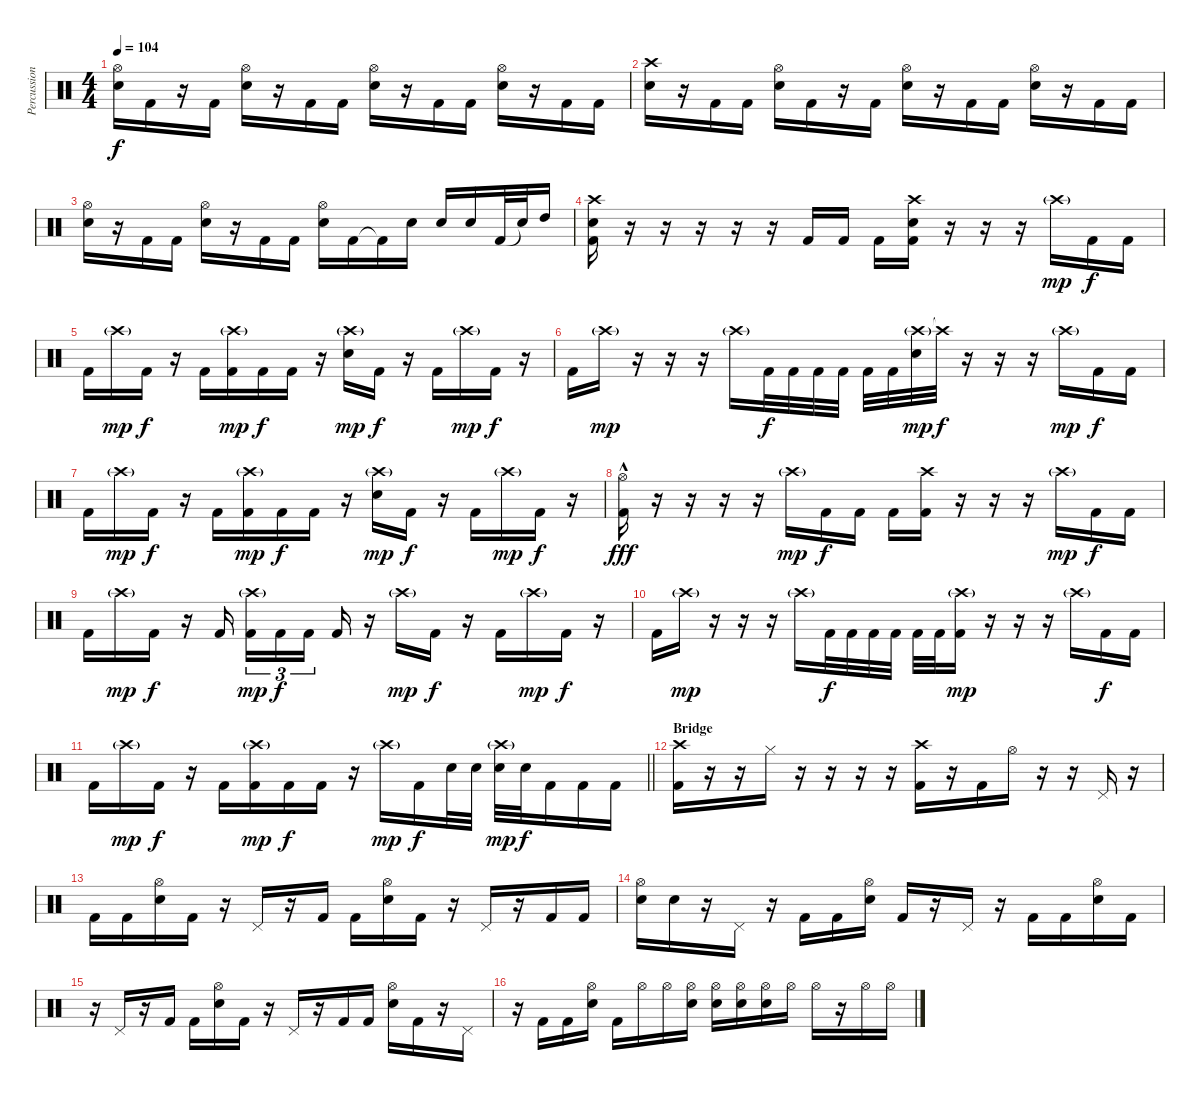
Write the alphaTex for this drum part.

\track ("Percussion" "Percussion") {instrument percussion}
\staff {score}
\articulation defaults
\ts (4 4)
\tempo 104
\clef neutral
\ks c
("Hi-Hat (open)" "Snare (hit) 2").16{dy f} "Kick (hit) 2".16 r.16 "Kick (hit) 2".16 ("Hi-Hat (open)" "Snare (hit) 2").16 r.16 "Kick (hit) 2".16 "Kick (hit) 2".16 ("Hi-Hat (open)" "Snare (hit) 2").16 r.16 "Kick (hit) 2".16 "Kick (hit) 2".16 ("Hi-Hat (open)" "Snare (hit) 2").16 r.16 "Kick (hit) 2".16 "Kick (hit) 2".16 |
("Crash high (hit)" "Snare (hit) 2").16 r.16 "Kick (hit) 2".16 "Kick (hit) 2".16 ("Hi-Hat (open)" "Snare (hit) 2").16 "Kick (hit) 2".16 r.16 "Kick (hit) 2".16 ("Hi-Hat (open)" "Snare (hit) 2").16 r.16 "Kick (hit) 2".16 "Kick (hit) 2".16 ("Hi-Hat (open)" "Snare (hit) 2").16 r.16 "Kick (hit) 2".16 "Kick (hit) 2".16 |
("Hi-Hat (open)" "Snare (hit) 2").16 r.16 "Kick (hit) 2".16 "Kick (hit) 2".16 ("Hi-Hat (open)" "Snare (hit) 2").16 r.16 "Kick (hit) 2".16 "Kick (hit) 2".16 ("Hi-Hat (open)" "Snare (hit) 2").16 "Kick (hit) 2".16 "Kick (hit) 2"{t}.16 "Snare (hit) 2".16 "Snare (hit) 2".16 "Snare (hit) 2".16 "Kick (hit) 2".32 "Snare (hit)"{t}.32 "High Tom (hit)".16 |
("Crash high (hit)" "Snare (hit) 2" "Kick (hit) 2").16 r.16 r.16 r.16 r.16 r.16 "Kick (hit) 2".16 "Kick (hit) 2".16 "Kick (hit) 2".16 ("Crash high (hit)" "Snare (hit) 2" "Kick (hit) 2").16 r.16 r.16 r.16 "Crash high (hit)"{g}.16{dy mp} "Kick (hit) 2".16{dy f} "Kick (hit) 2".16 |
"Kick (hit) 2".16 "Crash high (hit)"{g}.16{dy mp} "Kick (hit) 2".16{dy f} r.16 "Kick (hit) 2".16 ("Crash high (hit)"{g} "Kick (hit) 2").16{dy mp} "Kick (hit) 2".16{dy f} "Kick (hit) 2".16 r.16 ("Crash high (hit)"{g} "Snare (hit) 2").16{dy mp} "Kick (hit) 2".16{dy f} r.16 "Kick (hit) 2".16 "Crash high (hit)"{g}.16{dy mp} "Kick (hit) 2".16{dy f} r.16 |
"Kick (hit) 2".16 "Crash high (hit)"{g}.16{dy mp} r.16 r.16 r.16 "Crash high (hit)"{g}.16 "Kick (hit) 2".32{dy f} "Kick (hit) 2".32 "Kick (hit) 2".32 "Kick (hit) 2".32 "Kick (hit) 2".32 "Kick (hit) 2".32 ("Crash high (hit)"{g} "Snare (hit) 2").32{dy mp} "Crash high (hit)"{t}.32{dy f} r.16 r.16 r.16 "Crash high (hit)"{g}.16{dy mp} "Kick (hit) 2".16{dy f} "Kick (hit) 2".16 |
"Kick (hit) 2".16 "Crash high (hit)"{g}.16{dy mp} "Kick (hit) 2".16{dy f} r.16 "Kick (hit) 2".16 ("Crash high (hit)"{g} "Kick (hit) 2").16{dy mp} "Kick (hit) 2".16{dy f} "Kick (hit) 2".16 r.16 ("Crash high (hit)"{g} "Snare (hit) 2").16{dy mp} "Kick (hit) 2".16{dy f} r.16 "Kick (hit) 2".16 "Crash high (hit)"{g}.16{dy mp} "Kick (hit) 2".16{dy f} r.16 |
("Hi-Hat (open)"{hac} "Kick (hit) 2").16{dy fff} r.16 r.16 r.16 r.16 "Crash high (hit)"{g}.16{dy mp} "Kick (hit) 2".16{dy f} "Kick (hit) 2".16 "Kick (hit) 2".16 ("Crash high (hit)" "Kick (hit) 2").16 r.16 r.16 r.16 "Crash high (hit)"{g}.16{dy mp} "Kick (hit) 2".16{dy f} "Kick (hit) 2".16 |
"Kick (hit) 2".16 "Crash high (hit)"{g}.16{dy mp} "Kick (hit) 2".16{dy f} r.16 "Kick (hit) 2".16{beam splitsecondary} ("Crash high (hit)"{g} "Kick (hit) 2").16{tu (3 2) dy mp} "Kick (hit) 2".16{tu (3 2) dy f} "Kick (hit) 2".16{tu (3 2) beam splitsecondary} "Kick (hit) 2".16 r.16 "Crash high (hit)"{g}.16{dy mp} "Kick (hit) 2".16{dy f} r.16 "Kick (hit) 2".16 "Crash high (hit)"{g}.16{dy mp} "Kick (hit) 2".16{dy f} r.16 |
"Kick (hit) 2".16 "Crash high (hit)"{g}.16{dy mp} r.16 r.16 r.16 "Crash high (hit)"{g}.16 "Kick (hit) 2".32{dy f} "Kick (hit) 2".32 "Kick (hit) 2".32 "Kick (hit) 2".32 "Kick (hit) 2".32 "Kick (hit) 2".32 ("Crash high (hit)"{g} "Kick (hit) 2").16{dy mp} r.16 r.16 r.16 "Crash high (hit)"{g}.16 "Kick (hit) 2".16{dy f} "Kick (hit) 2".16 |
\barLineRight lightlight "Kick (hit) 2".16 "Crash high (hit)"{g}.16{dy mp} "Kick (hit) 2".16{dy f}
r.16 "Kick (hit) 2".16 ("Crash high (hit)"{g} "Kick (hit) 2").16{dy mp} "Kick (hit) 2".16{dy f} "Kick (hit) 2".16 r.16 "Crash high (hit)"{g}.16{dy mp} "Kick (hit) 2".16{dy f} "Snare (hit) 2".32 "Snare (hit) 2".32 ("Crash high (hit)"{g} "Snare (hit) 2").32{dy mp} "Snare (hit) 2".32{dy f} "Kick (hit) 2".16 "Kick (hit) 2".16 "Kick (hit) 2".16 |
\section ("" "Bridge")
("Crash high (hit)" "Kick (hit) 2").16 r.16 r.16 "Hi-Hat (closed)".16 r.16 r.16 r.16 r.16 ("Crash high (hit)" "Kick (hit) 2").16 r.16 "Kick (hit) 2".16 "Hi-Hat (open)".16 r.16 r.16 "Pedal Hi-Hat (hit)".16 r.16 |
"Kick (hit) 2".16 "Kick (hit) 2".16 ("Hi-Hat (open)" "Snare (hit) 2").16 "Kick (hit) 2".16 r.16 "Pedal Hi-Hat (hit)".16 r.16 "Kick (hit) 2".16 "Kick (hit) 2".16 ("Hi-Hat (open)" "Snare (hit) 2").16 "Kick (hit) 2".16 r.16 "Pedal Hi-Hat (hit)".16 r.16 "Kick (hit) 2".16 "Kick (hit) 2".16 |
("Hi-Hat (open)" "Snare (hit) 2").16 "Snare (hit) 2".16 r.16 "Pedal Hi-Hat (hit)".16 r.16 "Kick (hit) 2".16 "Kick (hit) 2".16 ("Hi-Hat (open)" "Snare (hit) 2").16 "Kick (hit) 2".16 r.16 "Pedal Hi-Hat (hit)".16 r.16 "Kick (hit) 2".16 "Kick (hit) 2".16 ("Hi-Hat (open)" "Snare (hit) 2").16 "Kick (hit) 2".16 |
r.16 "Pedal Hi-Hat (hit)".16 r.16 "Kick (hit) 2".16 "Kick (hit) 2".16 ("Hi-Hat (open)" "Snare (hit) 2").16 "Kick (hit) 2".16 r.16 "Pedal Hi-Hat (hit)".16 r.16 "Kick (hit) 2".16 "Kick (hit) 2".16 ("Hi-Hat (open)" "Snare (hit) 2").16 "Kick (hit) 2".16 r.16 "Pedal Hi-Hat (hit)".16 |
r.16 "Kick (hit) 2".16 "Kick (hit) 2".16 ("Hi-Hat (open)" "Snare (hit) 2").16 "Kick (hit) 2".16 "Hi-Hat (open)".16 "Hi-Hat (open)".16 ("Hi-Hat (open)" "Snare (hit) 2").16 ("Hi-Hat (open)" "Snare (hit) 2").16 ("Hi-Hat (open)" "Snare (hit) 2").16 ("Hi-Hat (open)" "Snare (hit) 2").16 "Hi-Hat (open)".16 "Hi-Hat (open)".16 r.16 "Hi-Hat (open)".16 "Hi-Hat (open)".16
